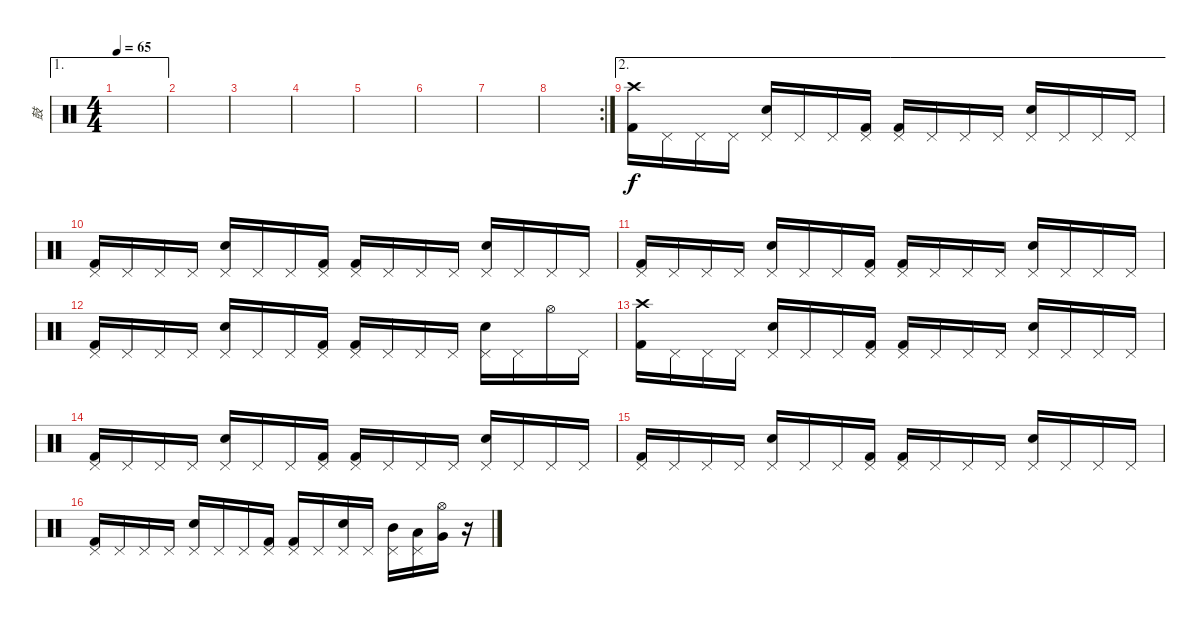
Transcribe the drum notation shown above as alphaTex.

\track ("鼓" "鼓") {instrument percussion}
\staff {score}
\articulation defaults
\ae 1
\ts (4 4)
\tempo 65
\clef neutral
\ks c
|
|
|
|
|
|
|
\rc 2
|
\ae 2
("Crash high (hit)" "Kick (hit) 2").16 "Pedal Hi-Hat (hit)".16 "Pedal Hi-Hat (hit)".16 "Pedal Hi-Hat (hit)".16 ("Pedal Hi-Hat (hit)" "Electric Snare (hit)").16 "Pedal Hi-Hat (hit)".16 "Pedal Hi-Hat (hit)".16 ("Pedal Hi-Hat (hit)" "Kick (hit) 2").16 ("Pedal Hi-Hat (hit)" "Kick (hit) 2").16 "Pedal Hi-Hat (hit)".16 "Pedal Hi-Hat (hit)".16 "Pedal Hi-Hat (hit)".16 ("Pedal Hi-Hat (hit)" "Electric Snare (hit)").16 "Pedal Hi-Hat (hit)".16 "Pedal Hi-Hat (hit)".16 "Pedal Hi-Hat (hit)".16 |
("Pedal Hi-Hat (hit)" "Kick (hit) 2").16 "Pedal Hi-Hat (hit)".16 "Pedal Hi-Hat (hit)".16 "Pedal Hi-Hat (hit)".16 ("Pedal Hi-Hat (hit)" "Electric Snare (hit)").16 "Pedal Hi-Hat (hit)".16 "Pedal Hi-Hat (hit)".16 ("Pedal Hi-Hat (hit)" "Kick (hit) 2").16 ("Pedal Hi-Hat (hit)" "Kick (hit) 2").16 "Pedal Hi-Hat (hit)".16 "Pedal Hi-Hat (hit)".16 "Pedal Hi-Hat (hit)".16 ("Pedal Hi-Hat (hit)" "Electric Snare (hit)").16 "Pedal Hi-Hat (hit)".16 "Pedal Hi-Hat (hit)".16 "Pedal Hi-Hat (hit)".16 |
("Pedal Hi-Hat (hit)" "Kick (hit) 2").16 "Pedal Hi-Hat (hit)".16 "Pedal Hi-Hat (hit)".16 "Pedal Hi-Hat (hit)".16 ("Pedal Hi-Hat (hit)" "Electric Snare (hit)").16 "Pedal Hi-Hat (hit)".16 "Pedal Hi-Hat (hit)".16 ("Pedal Hi-Hat (hit)" "Kick (hit) 2").16 ("Pedal Hi-Hat (hit)" "Kick (hit) 2").16 "Pedal Hi-Hat (hit)".16 "Pedal Hi-Hat (hit)".16 "Pedal Hi-Hat (hit)".16 ("Pedal Hi-Hat (hit)" "Electric Snare (hit)").16 "Pedal Hi-Hat (hit)".16 "Pedal Hi-Hat (hit)".16 "Pedal Hi-Hat (hit)".16 |
("Pedal Hi-Hat (hit)" "Kick (hit) 2").16 "Pedal Hi-Hat (hit)".16 "Pedal Hi-Hat (hit)".16 "Pedal Hi-Hat (hit)".16 ("Pedal Hi-Hat (hit)" "Electric Snare (hit)").16 "Pedal Hi-Hat (hit)".16 "Pedal Hi-Hat (hit)".16 ("Pedal Hi-Hat (hit)" "Kick (hit) 2").16 ("Pedal Hi-Hat (hit)" "Kick (hit) 2").16 "Pedal Hi-Hat (hit)".16 "Pedal Hi-Hat (hit)".16 "Pedal Hi-Hat (hit)".16 ("Pedal Hi-Hat (hit)" "Electric Snare (hit)").16 "Pedal Hi-Hat (hit)".16 "Hi-Hat (open)".16 "Pedal Hi-Hat (hit)".16 |
("Crash high (hit)" "Kick (hit) 2").16 "Pedal Hi-Hat (hit)".16 "Pedal Hi-Hat (hit)".16 "Pedal Hi-Hat (hit)".16 ("Pedal Hi-Hat (hit)" "Electric Snare (hit)").16 "Pedal Hi-Hat (hit)".16 "Pedal Hi-Hat (hit)".16 ("Pedal Hi-Hat (hit)" "Kick (hit) 2").16 ("Pedal Hi-Hat (hit)" "Kick (hit) 2").16 "Pedal Hi-Hat (hit)".16 "Pedal Hi-Hat (hit)".16 "Pedal Hi-Hat (hit)".16 ("Pedal Hi-Hat (hit)" "Electric Snare (hit)").16 "Pedal Hi-Hat (hit)".16 "Pedal Hi-Hat (hit)".16 "Pedal Hi-Hat (hit)".16 |
("Pedal Hi-Hat (hit)" "Kick (hit) 2").16 "Pedal Hi-Hat (hit)".16 "Pedal Hi-Hat (hit)".16 "Pedal Hi-Hat (hit)".16 ("Pedal Hi-Hat (hit)" "Electric Snare (hit)").16 "Pedal Hi-Hat (hit)".16 "Pedal Hi-Hat (hit)".16 ("Pedal Hi-Hat (hit)" "Kick (hit) 2").16 ("Pedal Hi-Hat (hit)" "Kick (hit) 2").16 "Pedal Hi-Hat (hit)".16 "Pedal Hi-Hat (hit)".16 "Pedal Hi-Hat (hit)".16 ("Pedal Hi-Hat (hit)" "Electric Snare (hit)").16 "Pedal Hi-Hat (hit)".16 "Pedal Hi-Hat (hit)".16 "Pedal Hi-Hat (hit)".16 |
("Pedal Hi-Hat (hit)" "Kick (hit) 2").16 "Pedal Hi-Hat (hit)".16 "Pedal Hi-Hat (hit)".16 "Pedal Hi-Hat (hit)".16 ("Pedal Hi-Hat (hit)" "Electric Snare (hit)").16 "Pedal Hi-Hat (hit)".16 "Pedal Hi-Hat (hit)".16 ("Pedal Hi-Hat (hit)" "Kick (hit) 2").16 ("Pedal Hi-Hat (hit)" "Kick (hit) 2").16 "Pedal Hi-Hat (hit)".16 "Pedal Hi-Hat (hit)".16 "Pedal Hi-Hat (hit)".16 ("Pedal Hi-Hat (hit)" "Electric Snare (hit)").16 "Pedal Hi-Hat (hit)".16 "Pedal Hi-Hat (hit)".16 "Pedal Hi-Hat (hit)".16 |
("Pedal Hi-Hat (hit)" "Kick (hit) 2").16 "Pedal Hi-Hat (hit)".16 "Pedal Hi-Hat (hit)".16 "Pedal Hi-Hat (hit)".16 ("Pedal Hi-Hat (hit)" "Electric Snare (hit)").16 "Pedal Hi-Hat (hit)".16 "Pedal Hi-Hat (hit)".16 ("Pedal Hi-Hat (hit)" "Kick (hit) 2").16 ("Pedal Hi-Hat (hit)" "Kick (hit) 2").16 "Pedal Hi-Hat (hit)".16 ("Pedal Hi-Hat (hit)" "Electric Snare (hit)").16 "Pedal Hi-Hat (hit)".16 ("Pedal Hi-Hat (hit)" "Mid Tom (hit)").16 ("Pedal Hi-Hat (hit)" "Low Tom (hit)").16 ("Hi-Hat (open)" "Very Low Tom (hit)").16 r.16
